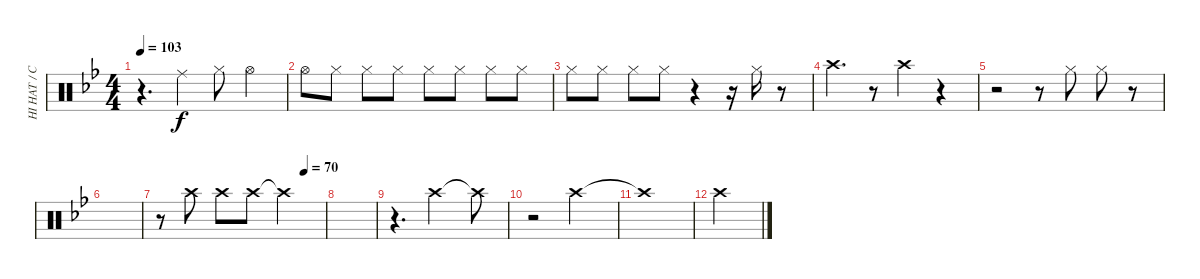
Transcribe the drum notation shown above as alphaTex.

\track ("HI HAT / CYMBALS" "HI HAT / C") {instrument percussion}
\staff {score}
\articulation defaults
\ts (4 4)
\tempo 103
\clef neutral
\ks bb
r.4{d dy f} "Ride (middle)".4 "Hi-Hat (closed)".8 "Hi-Hat (open)".4 |
"Hi-Hat (open)".8 "Hi-Hat (closed)".8 "Hi-Hat (closed)".8 "Hi-Hat (closed)".8 "Hi-Hat (closed)".8 "Hi-Hat (closed)".8 "Hi-Hat (closed)".8 "Hi-Hat (closed)".8 |
"Hi-Hat (closed)".8 "Hi-Hat (closed)".8 "Hi-Hat (closed)".8 "Hi-Hat (closed)".8 r.4 r.16 "Hi-Hat (closed)".16 r.8 |
"Crash high (hit)".4{d} r.8 "Crash high (hit)".4 r.4 |
r.2 r.8 "Hi-Hat (closed)".8 "Hi-Hat (closed)".8 r.8 |
|
\tempo (70 0.875)
r.8 "Crash high (hit)".8 "Crash high (hit)".8 "Crash high (hit)".8 "Crash high (hit)"{t}.2 |
|
r.4{d} "Crash high (hit)".2 "Crash high (hit)"{t}.8 |
r.2 "Crash high (hit)".2 |
"Crash high (hit)"{t}.1 |
"Crash high (hit)".2
